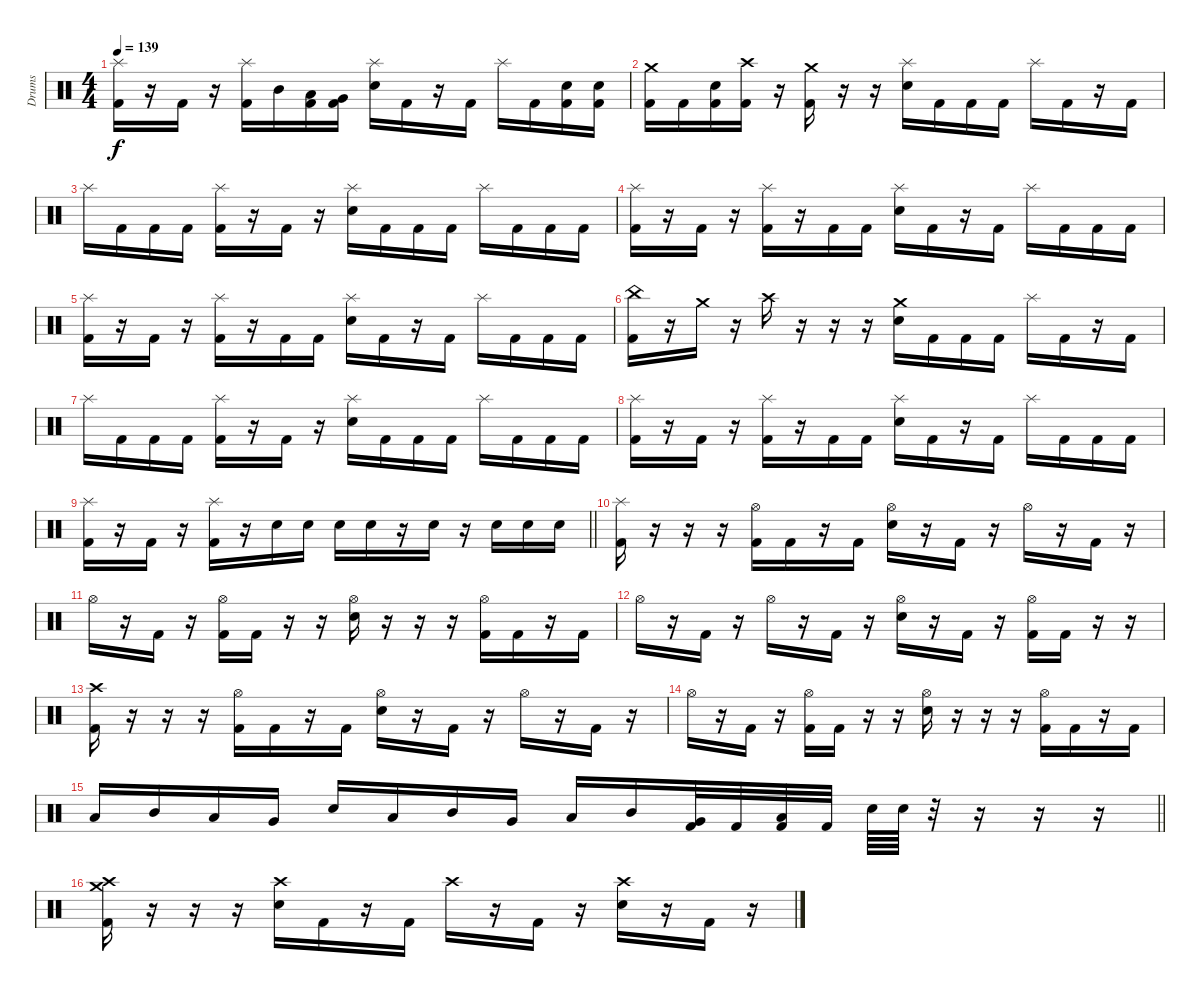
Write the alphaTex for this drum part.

\track ("Drums" "Drums") {instrument percussion}
\staff {score}
\articulation defaults
\ts (4 4)
\tempo 139
\clef neutral
\ks c
("Splash (hit)" "Kick (hit) 2").16{dy f} r.16 "Kick (hit) 2".16 r.16 ("Splash (hit)" "Kick (hit) 2").16 "Mid Tom (hit)".16 ("Low Tom (hit)" "Kick (hit) 2").16 ("Very Low Tom (hit)" "Kick (hit) 2").16 ("Splash (hit)" "Electric Snare (hit)").16 "Kick (hit) 2".16 r.16 "Kick (hit) 2".16 "Splash (hit)".16 "Kick (hit) 2".16 ("Electric Snare (hit)" "Kick (hit) 2").16 ("Electric Snare (hit)" "Kick (hit) 2").16 |
("Crash medium (hit)" "Kick (hit) 2").16 "Kick (hit) 2".16 ("Electric Snare (hit)" "Kick (hit) 2").16 ("Crash high (hit)" "Kick (hit) 2").16 r.16 ("Crash medium (hit)" "Kick (hit) 2").16 r.16 r.16 ("Splash (hit)" "Electric Snare (hit)").16 "Kick (hit) 2".16 "Kick (hit) 2".16 "Kick (hit) 2".16 "Splash (hit)".16 "Kick (hit) 2".16 r.16 "Kick (hit) 2".16 |
"Splash (hit)".16 "Kick (hit) 2".16 "Kick (hit) 2".16 "Kick (hit) 2".16 ("Splash (hit)" "Kick (hit) 2").16 r.16 "Kick (hit) 2".16 r.16 ("Splash (hit)" "Electric Snare (hit)").16 "Kick (hit) 2".16 "Kick (hit) 2".16 "Kick (hit) 2".16 "Splash (hit)".16 "Kick (hit) 2".16 "Kick (hit) 2".16 "Kick (hit) 2".16 |
("Splash (hit)" "Kick (hit) 2").16 r.16 "Kick (hit) 2".16 r.16 ("Splash (hit)" "Kick (hit) 2").16 r.16 "Kick (hit) 2".16 "Kick (hit) 2".16 ("Splash (hit)" "Electric Snare (hit)").16 "Kick (hit) 2".16 r.16 "Kick (hit) 2".16 "Splash (hit)".16 "Kick (hit) 2".16 "Kick (hit) 2".16 "Kick (hit) 2".16 |
("Splash (hit)" "Kick (hit) 2").16 r.16 "Kick (hit) 2".16 r.16 ("Splash (hit)" "Kick (hit) 2").16 r.16 "Kick (hit) 2".16 "Kick (hit) 2".16 ("Splash (hit)" "Electric Snare (hit)").16 "Kick (hit) 2".16 r.16 "Kick (hit) 2".16 "Splash (hit)".16 "Kick (hit) 2".16 "Kick (hit) 2".16 "Kick (hit) 2".16 |
("China (hit)" "Kick (hit) 2").16 r.16 "Crash medium (hit)".16 r.16 "Crash high (hit)".16 r.16 r.16 r.16 ("Crash medium (hit)" "Electric Snare (hit)").16 "Kick (hit) 2".16 "Kick (hit) 2".16 "Kick (hit) 2".16 "Splash (hit)".16 "Kick (hit) 2".16 r.16 "Kick (hit) 2".16 |
"Splash (hit)".16 "Kick (hit) 2".16 "Kick (hit) 2".16 "Kick (hit) 2".16 ("Splash (hit)" "Kick (hit) 2").16 r.16 "Kick (hit) 2".16 r.16 ("Splash (hit)" "Electric Snare (hit)").16 "Kick (hit) 2".16 "Kick (hit) 2".16 "Kick (hit) 2".16 "Splash (hit)".16 "Kick (hit) 2".16 "Kick (hit) 2".16 "Kick (hit) 2".16 |
("Splash (hit)" "Kick (hit) 2").16 r.16 "Kick (hit) 2".16 r.16 ("Splash (hit)" "Kick (hit) 2").16 r.16 "Kick (hit) 2".16 "Kick (hit) 2".16 ("Splash (hit)" "Electric Snare (hit)").16 "Kick (hit) 2".16 r.16 "Kick (hit) 2".16 "Splash (hit)".16 "Kick (hit) 2".16 "Kick (hit) 2".16 "Kick (hit) 2".16 |
\barLineRight lightlight
("Splash (hit)" "Kick (hit) 2").16 r.16 "Kick (hit) 2".16 r.16 ("Splash (hit)" "Kick (hit) 2").16 r.16 "Electric Snare (hit)".16 "Electric Snare (hit)".16 "Electric Snare (hit)".16 "Electric Snare (hit)".16 r.16 "Electric Snare (hit)".16 r.16 "Electric Snare (hit)".16 "Electric Snare (hit)".16 "Electric Snare (hit)".16 |
\section ("" "")
("Splash (hit)" "Kick (hit) 2").16 r.16 r.16 r.16 ("Hi-Hat (open)" "Kick (hit) 2").16 "Kick (hit) 2".16 r.16 "Kick (hit) 2".16 ("Hi-Hat (open)" "Electric Snare (hit)").16 r.16 "Kick (hit) 2".16 r.16 "Hi-Hat (open)".16 r.16 "Kick (hit) 2".16 r.16 |
"Hi-Hat (open)".16 r.16 "Kick (hit) 2".16 r.16 ("Hi-Hat (open)" "Kick (hit) 2").16 "Kick (hit) 2".16 r.16 r.16 ("Hi-Hat (open)" "Electric Snare (hit)").16 r.16 r.16 r.16 ("Hi-Hat (open)" "Kick (hit) 2").16 "Kick (hit) 2".16 r.16 "Kick (hit) 2".16 |
"Hi-Hat (open)".16 r.16 "Kick (hit) 2".16 r.16 "Hi-Hat (open)".16 r.16 "Kick (hit) 2".16 r.16 ("Hi-Hat (open)" "Electric Snare (hit)").16 r.16 "Kick (hit) 2".16 r.16 ("Hi-Hat (open)" "Kick (hit) 2").16 "Kick (hit) 2".16 r.16 r.16 |
("Crash high (hit)" "Kick (hit) 2").16 r.16 r.16 r.16 ("Hi-Hat (open)" "Kick (hit) 2").16 "Kick (hit) 2".16 r.16 "Kick (hit) 2".16 ("Hi-Hat (open)" "Electric Snare (hit)").16 r.16 "Kick (hit) 2".16 r.16 "Hi-Hat (open)".16 r.16 "Kick (hit) 2".16 r.16 |
"Hi-Hat (open)".16 r.16 "Kick (hit) 2".16 r.16 ("Hi-Hat (open)" "Kick (hit) 2").16 "Kick (hit) 2".16 r.16 r.16 ("Hi-Hat (open)" "Electric Snare (hit)").16 r.16 r.16 r.16 ("Hi-Hat (open)" "Kick (hit) 2").16 "Kick (hit) 2".16 r.16 "Kick (hit) 2".16 |
\barLineRight lightlight "Low Tom (hit)".16 "Mid Tom (hit)".16 "Low Tom (hit)".16 "Very Low Tom (hit)".16 "Electric Snare (hit)".16 "Low Tom (hit)".16 "Mid Tom (hit)".16 "Very Low Tom (hit)".16 "Low Tom (hit)".16 "Mid Tom (hit)".16
("Very Low Tom (hit)" "Kick (hit) 2").32 "Kick (hit) 2".32 ("Low Floor Tom (hit)" "Kick (hit) 2").32 "Kick (hit) 2".32 "Electric Snare (hit)".64 "Electric Snare (hit)".64 r.32 r.16 r.16 r.16 |
\section ("" "")
("Crash medium (hit)" "Crash high (hit)" "Kick (hit) 2").16 r.16 r.16 r.16 ("Crash high (hit)" "Electric Snare (hit)").16 "Kick (hit) 2".16 r.16 "Kick (hit) 2".16 "Crash high (hit)".16 r.16 "Kick (hit) 2".16 r.16 ("Crash high (hit)" "Electric Snare (hit)").16 r.16 "Kick (hit) 2".16 r.16
